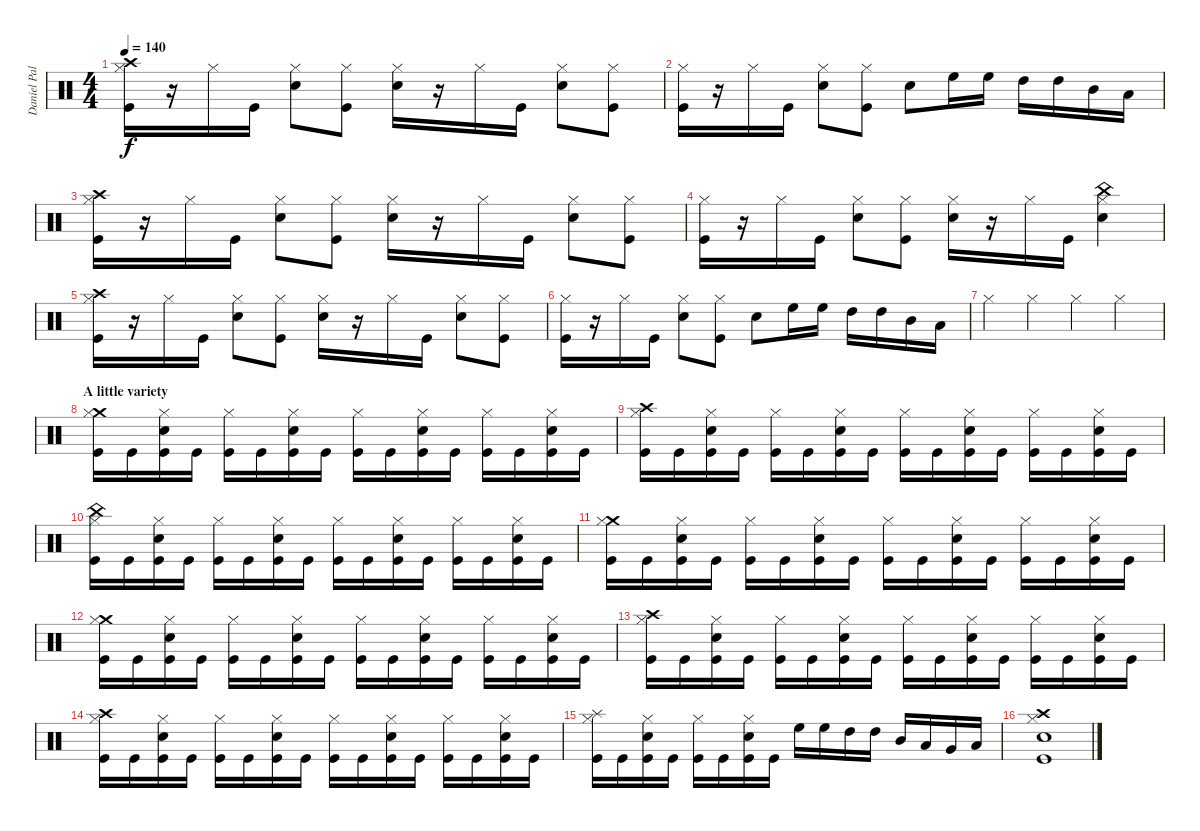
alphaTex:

\track ("Daniel Pal" "Daniel Pal") {instrument percussion}
\staff {score}
\articulation defaults
\ts (4 4)
\tempo 140
\clef neutral
\ks c
("Crash high (hit)" "Hi-Hat (closed)" "Kick (hit)").16{dy f} r.16 "Hi-Hat (closed)".16 "Kick (hit)".16 ("Hi-Hat (closed)" "Electric Snare (hit)").8 ("Hi-Hat (closed)" "Kick (hit)").8 ("Hi-Hat (closed)" "Electric Snare (hit)").16 r.16 "Hi-Hat (closed)".16 "Kick (hit)".16 ("Hi-Hat (closed)" "Electric Snare (hit)").8 ("Hi-Hat (closed)" "Kick (hit)").8 |
("Hi-Hat (closed)" "Kick (hit)").16 r.16 "Hi-Hat (closed)".16 "Kick (hit)".16 ("Hi-Hat (closed)" "Electric Snare (hit)").8 ("Hi-Hat (closed)" "Kick (hit)").8 "Electric Snare (hit)".8 "High Floor Tom (hit)".16 "High Floor Tom (hit)".16 "High Tom (hit)".16 "High Tom (hit)".16 "Mid Tom (hit)".16 "Low Tom (hit)".16 |
("Crash high (hit)" "Hi-Hat (closed)" "Kick (hit)").16 r.16 "Hi-Hat (closed)".16 "Kick (hit)".16 ("Hi-Hat (closed)" "Electric Snare (hit)").8 ("Hi-Hat (closed)" "Kick (hit)").8 ("Hi-Hat (closed)" "Electric Snare (hit)").16 r.16 "Hi-Hat (closed)".16 "Kick (hit)".16 ("Hi-Hat (closed)" "Electric Snare (hit)").8 ("Hi-Hat (closed)" "Kick (hit)").8 |
("Hi-Hat (closed)" "Kick (hit)").16 r.16 "Hi-Hat (closed)".16 "Kick (hit)".16 ("Hi-Hat (closed)" "Electric Snare (hit)").8 ("Hi-Hat (closed)" "Kick (hit)").8 ("Hi-Hat (closed)" "Electric Snare (hit)").16 r.16 "Hi-Hat (closed)".16 "Kick (hit)".16 ("China (hit)" "Hi-Hat (closed)" "Electric Snare (hit)").4 |
("Crash high (hit)" "Hi-Hat (closed)" "Kick (hit)").16 r.16 "Hi-Hat (closed)".16 "Kick (hit)".16 ("Hi-Hat (closed)" "Electric Snare (hit)").8 ("Hi-Hat (closed)" "Kick (hit)").8 ("Hi-Hat (closed)" "Electric Snare (hit)").16 r.16 "Hi-Hat (closed)".16 "Kick (hit)".16 ("Hi-Hat (closed)" "Electric Snare (hit)").8 ("Hi-Hat (closed)" "Kick (hit)").8 |
("Hi-Hat (closed)" "Kick (hit)").16 r.16 "Hi-Hat (closed)".16 "Kick (hit)".16 ("Hi-Hat (closed)" "Electric Snare (hit)").8 ("Hi-Hat (closed)" "Kick (hit)").8 "Electric Snare (hit)".8 "High Floor Tom (hit)".16 "High Floor Tom (hit)".16 "High Tom (hit)".16 "High Tom (hit)".16 "Mid Tom (hit)".16 "Low Tom (hit)".16 |
"Hi-Hat (closed)".4 "Hi-Hat (closed)".4 "Hi-Hat (closed)".4 "Hi-Hat (closed)".4 |
\section ("" "A little variety")
("Crash medium (hit)" "Hi-Hat (closed)" "Kick (hit)").16 "Kick (hit)".16 ("Hi-Hat (closed)" "Electric Snare (hit)" "Kick (hit)").16 "Kick (hit)".16 ("Hi-Hat (closed)" "Kick (hit)").16 "Kick (hit)".16 ("Hi-Hat (closed)" "Electric Snare (hit)" "Kick (hit)").16 "Kick (hit)".16 ("Hi-Hat (closed)" "Kick (hit)").16 "Kick (hit)".16 ("Hi-Hat (closed)" "Electric Snare (hit)" "Kick (hit)").16 "Kick (hit)".16 ("Hi-Hat (closed)" "Kick (hit)").16 "Kick (hit)".16 ("Hi-Hat (closed)" "Electric Snare (hit)" "Kick (hit)").16 "Kick (hit)".16 |
("Crash high (hit)" "Hi-Hat (closed)" "Kick (hit)").16 "Kick (hit)".16 ("Hi-Hat (closed)" "Electric Snare (hit)" "Kick (hit)").16 "Kick (hit)".16 ("Hi-Hat (closed)" "Kick (hit)").16 "Kick (hit)".16 ("Hi-Hat (closed)" "Electric Snare (hit)" "Kick (hit)").16 "Kick (hit)".16 ("Hi-Hat (closed)" "Kick (hit)").16 "Kick (hit)".16 ("Hi-Hat (closed)" "Electric Snare (hit)" "Kick (hit)").16 "Kick (hit)".16 ("Hi-Hat (closed)" "Kick (hit)").16 "Kick (hit)".16 ("Hi-Hat (closed)" "Electric Snare (hit)" "Kick (hit)").16 "Kick (hit)".16 |
("China (hit)" "Hi-Hat (closed)" "Kick (hit)").16 "Kick (hit)".16 ("Hi-Hat (closed)" "Electric Snare (hit)" "Kick (hit)").16 "Kick (hit)".16 ("Hi-Hat (closed)" "Kick (hit)").16 "Kick (hit)".16 ("Hi-Hat (closed)" "Electric Snare (hit)" "Kick (hit)").16 "Kick (hit)".16 ("Hi-Hat (closed)" "Kick (hit)").16 "Kick (hit)".16 ("Hi-Hat (closed)" "Electric Snare (hit)" "Kick (hit)").16 "Kick (hit)".16 ("Hi-Hat (closed)" "Kick (hit)").16 "Kick (hit)".16 ("Hi-Hat (closed)" "Electric Snare (hit)" "Kick (hit)").16 "Kick (hit)".16 |
("Crash medium (hit)" "Hi-Hat (closed)" "Kick (hit)").16 "Kick (hit)".16 ("Hi-Hat (closed)" "Electric Snare (hit)" "Kick (hit)").16 "Kick (hit)".16 ("Hi-Hat (closed)" "Kick (hit)").16 "Kick (hit)".16 ("Hi-Hat (closed)" "Electric Snare (hit)" "Kick (hit)").16 "Kick (hit)".16 ("Hi-Hat (closed)" "Kick (hit)").16 "Kick (hit)".16 ("Hi-Hat (closed)" "Electric Snare (hit)" "Kick (hit)").16 "Kick (hit)".16 ("Hi-Hat (closed)" "Kick (hit)").16 "Kick (hit)".16 ("Hi-Hat (closed)" "Electric Snare (hit)" "Kick (hit)").16 "Kick (hit)".16 |
("Crash medium (hit)" "Hi-Hat (closed)" "Kick (hit)").16 "Kick (hit)".16 ("Hi-Hat (closed)" "Electric Snare (hit)" "Kick (hit)").16 "Kick (hit)".16 ("Hi-Hat (closed)" "Kick (hit)").16 "Kick (hit)".16 ("Hi-Hat (closed)" "Electric Snare (hit)" "Kick (hit)").16 "Kick (hit)".16 ("Hi-Hat (closed)" "Kick (hit)").16 "Kick (hit)".16 ("Hi-Hat (closed)" "Electric Snare (hit)" "Kick (hit)").16 "Kick (hit)".16 ("Hi-Hat (closed)" "Kick (hit)").16 "Kick (hit)".16 ("Hi-Hat (closed)" "Electric Snare (hit)" "Kick (hit)").16 "Kick (hit)".16 |
("Crash high (hit)" "Hi-Hat (closed)" "Kick (hit)").16 "Kick (hit)".16 ("Hi-Hat (closed)" "Electric Snare (hit)" "Kick (hit)").16 "Kick (hit)".16 ("Hi-Hat (closed)" "Kick (hit)").16 "Kick (hit)".16 ("Hi-Hat (closed)" "Electric Snare (hit)" "Kick (hit)").16 "Kick (hit)".16 ("Hi-Hat (closed)" "Kick (hit)").16 "Kick (hit)".16 ("Hi-Hat (closed)" "Electric Snare (hit)" "Kick (hit)").16 "Kick (hit)".16 ("Hi-Hat (closed)" "Kick (hit)").16 "Kick (hit)".16 ("Hi-Hat (closed)" "Electric Snare (hit)" "Kick (hit)").16 "Kick (hit)".16 |
("Crash high (hit)" "Hi-Hat (closed)" "Kick (hit)").16 "Kick (hit)".16 ("Hi-Hat (closed)" "Electric Snare (hit)" "Kick (hit)").16 "Kick (hit)".16 ("Hi-Hat (closed)" "Kick (hit)").16 "Kick (hit)".16 ("Hi-Hat (closed)" "Electric Snare (hit)" "Kick (hit)").16 "Kick (hit)".16 ("Hi-Hat (closed)" "Kick (hit)").16 "Kick (hit)".16 ("Hi-Hat (closed)" "Electric Snare (hit)" "Kick (hit)").16 "Kick (hit)".16 ("Hi-Hat (closed)" "Kick (hit)").16 "Kick (hit)".16 ("Hi-Hat (closed)" "Electric Snare (hit)" "Kick (hit)").16 "Kick (hit)".16 |
("Splash (hit)" "Hi-Hat (closed)" "Kick (hit)").16 "Kick (hit)".16 ("Hi-Hat (closed)" "Electric Snare (hit)" "Kick (hit)").16 "Kick (hit)".16 ("Hi-Hat (closed)" "Kick (hit)").16 "Kick (hit)".16 ("Hi-Hat (closed)" "Electric Snare (hit)" "Kick (hit)").16 "Kick (hit)".16 "High Floor Tom (hit)".16 "High Floor Tom (hit)".16 "High Tom (hit)".16 "High Tom (hit)".16 "Mid Tom (hit)".16 "Low Tom (hit)".16 "Very Low Tom (hit)".16 "Low Floor Tom (hit)".16 |
("Crash high (hit)" "Hi-Hat (closed)" "Electric Snare (hit)" "Kick (hit)").1
